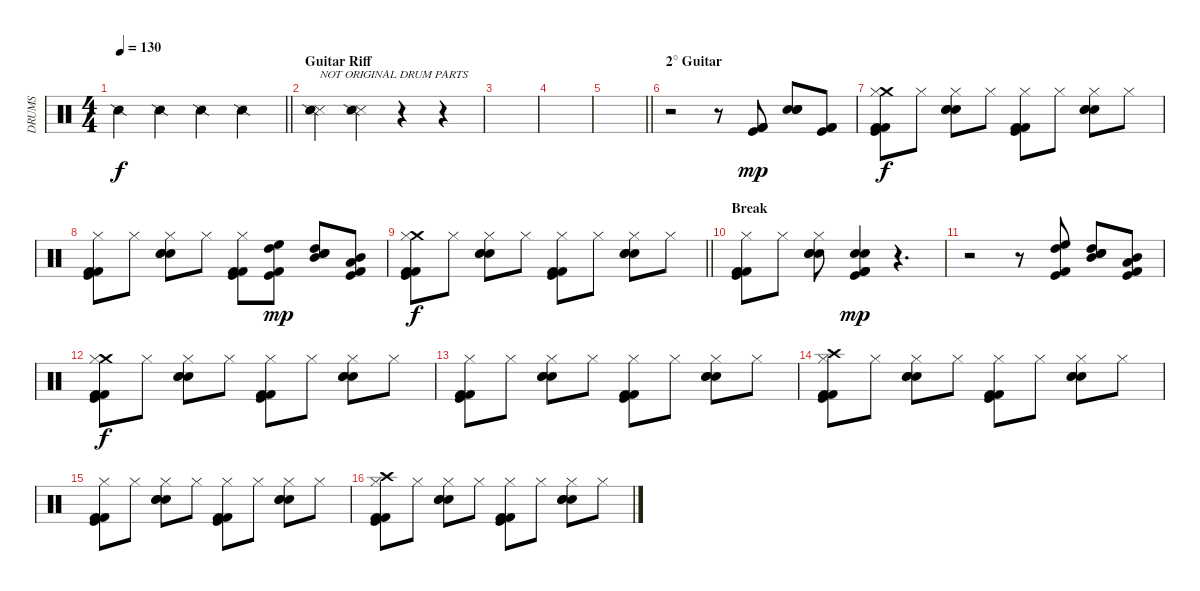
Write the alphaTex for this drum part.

\track ("DRUMS" "DRUMS") {instrument percussion}
\staff {score}
\articulation defaults
\ts (4 4)
\tempo 130
\clef neutral
\barLineRight lightlight
\ks c "Snare (side stick) 2".4{dy f} "Snare (side stick) 2".4 "Snare (side stick) 2".4 "Snare (side stick) 2".4
|
\section ("" "Guitar Riff")
("Snare (side stick) 3" "Snare (side stick) 2").4{txt "NOT ORIGINAL DRUM PARTS"} ("Snare (side stick) 3" "Snare (side stick) 2").4 r.4 r.4 |
|
|
\barLineRight lightlight
|
\section ("" "2° Guitar")
r.2 r.8{volume 10} ("Kick (hit) 2" "Kick (hit)" "Kick (hit) 2").8{dy mp} ("Snare (hit) 2" "Electric Snare (hit)" "Snare (hit) 2").8 ("Kick (hit) 2" "Kick (hit)" "Kick (hit) 2").8 |
("Crash medium (hit)" "Hi-Hat (closed)" "Kick (hit) 2" "Kick (hit)" "Kick (hit) 2").8{dy f volume 8} "Hi-Hat (closed)".8 ("Hi-Hat (closed)" "Snare (hit) 2" "Electric Snare (hit)" "Snare (hit) 2").8 "Hi-Hat (closed)".8 ("Hi-Hat (closed)" "Kick (hit) 2" "Kick (hit)" "Kick (hit) 2").8 "Hi-Hat (closed)".8 ("Hi-Hat (closed)" "Snare (hit) 2" "Electric Snare (hit)" "Snare (hit) 2").8 "Hi-Hat (closed)".8 |
("Hi-Hat (closed)" "Kick (hit) 2" "Kick (hit)" "Kick (hit) 2").8 "Hi-Hat (closed)".8 ("Hi-Hat (closed)" "Snare (hit) 2" "Electric Snare (hit)" "Snare (hit) 2").8 "Hi-Hat (closed)".8 ("Hi-Hat (closed)" "Kick (hit) 2" "Kick (hit)" "Kick (hit) 2").8 ("Kick (hit) 2" "Kick (hit)" "High Floor Tom (hit)" "High Tom (hit)").8{dy mp volume 10} ("Snare (hit) 2" "Electric Snare (hit)" "High Tom (hit)" "Mid Tom (hit)").8 ("Kick (hit) 2" "Kick (hit)" "Mid Tom (hit)" "Low Tom (hit)").8 |
\barLineRight lightlight
("Crash medium (hit)" "Hi-Hat (closed)" "Kick (hit) 2" "Kick (hit)" "Kick (hit) 2").8{dy f volume 8} "Hi-Hat (closed)".8 ("Hi-Hat (closed)" "Snare (hit) 2" "Electric Snare (hit)" "Snare (hit) 2").8 "Hi-Hat (closed)".8 ("Hi-Hat (closed)" "Kick (hit) 2" "Kick (hit)" "Kick (hit) 2").8 "Hi-Hat (closed)".8 ("Hi-Hat (closed)" "Snare (hit) 2" "Electric Snare (hit)" "Snare (hit) 2").8 "Hi-Hat (closed)".8 |
\section ("" "Break")
("Hi-Hat (closed)" "Kick (hit) 2" "Kick (hit)" "Kick (hit) 2").8 "Hi-Hat (closed)".8 ("Hi-Hat (closed)" "Snare (hit) 2" "Electric Snare (hit)" "Snare (hit) 2").8 ("Kick (hit) 2" "Kick (hit)" "Snare (hit) 2" "Electric Snare (hit)" "Kick (hit) 2").4{dy mp volume 10} r.4{d} |
r.2 r.8 ("Kick (hit) 2" "Kick (hit)" "High Floor Tom (hit)" "High Tom (hit)").8 ("Snare (hit) 2" "Electric Snare (hit)" "High Tom (hit)" "Mid Tom (hit)").8 ("Kick (hit) 2" "Kick (hit)" "Mid Tom (hit)" "Low Tom (hit)").8 |
("Crash medium (hit)" "Hi-Hat (closed)" "Kick (hit) 2" "Kick (hit)" "Kick (hit) 2").8{dy f volume 8} "Hi-Hat (closed)".8 ("Hi-Hat (closed)" "Snare (hit) 2" "Electric Snare (hit)" "Snare (hit) 2").8 "Hi-Hat (closed)".8 ("Hi-Hat (closed)" "Kick (hit) 2" "Kick (hit)" "Kick (hit) 2").8 "Hi-Hat (closed)".8 ("Hi-Hat (closed)" "Snare (hit) 2" "Electric Snare (hit)" "Snare (hit) 2").8 "Hi-Hat (closed)".8 |
("Hi-Hat (closed)" "Kick (hit) 2" "Kick (hit)" "Kick (hit) 2").8 "Hi-Hat (closed)".8 ("Hi-Hat (closed)" "Snare (hit) 2" "Electric Snare (hit)" "Snare (hit) 2").8 "Hi-Hat (closed)".8 ("Hi-Hat (closed)" "Kick (hit) 2" "Kick (hit)" "Kick (hit) 2").8 "Hi-Hat (closed)".8 ("Hi-Hat (closed)" "Snare (hit) 2" "Electric Snare (hit)" "Snare (hit) 2").8 "Hi-Hat (closed)".8 |
("Crash high (hit)" "Hi-Hat (closed)" "Kick (hit) 2" "Kick (hit)" "Kick (hit) 2").8 "Hi-Hat (closed)".8 ("Hi-Hat (closed)" "Snare (hit) 2" "Electric Snare (hit)" "Snare (hit) 2").8 "Hi-Hat (closed)".8 ("Hi-Hat (closed)" "Kick (hit) 2" "Kick (hit)" "Kick (hit) 2").8 "Hi-Hat (closed)".8 ("Hi-Hat (closed)" "Snare (hit) 2" "Electric Snare (hit)" "Snare (hit) 2").8 "Hi-Hat (closed)".8 |
("Hi-Hat (closed)" "Kick (hit) 2" "Kick (hit)" "Kick (hit) 2").8 "Hi-Hat (closed)".8 ("Hi-Hat (closed)" "Snare (hit) 2" "Electric Snare (hit)" "Snare (hit) 2").8 "Hi-Hat (closed)".8 ("Hi-Hat (closed)" "Kick (hit) 2" "Kick (hit)" "Kick (hit) 2").8 "Hi-Hat (closed)".8 ("Hi-Hat (closed)" "Snare (hit) 2" "Electric Snare (hit)" "Snare (hit) 2").8 "Hi-Hat (closed)".8 |
("Crash high (hit)" "Hi-Hat (closed)" "Kick (hit) 2" "Kick (hit)" "Kick (hit) 2").8 "Hi-Hat (closed)".8 ("Hi-Hat (closed)" "Snare (hit) 2" "Electric Snare (hit)" "Snare (hit) 2").8 "Hi-Hat (closed)".8 ("Hi-Hat (closed)" "Kick (hit) 2" "Kick (hit)" "Kick (hit) 2").8 "Hi-Hat (closed)".8 ("Hi-Hat (closed)" "Snare (hit) 2" "Electric Snare (hit)" "Snare (hit) 2").8 "Hi-Hat (closed)".8
